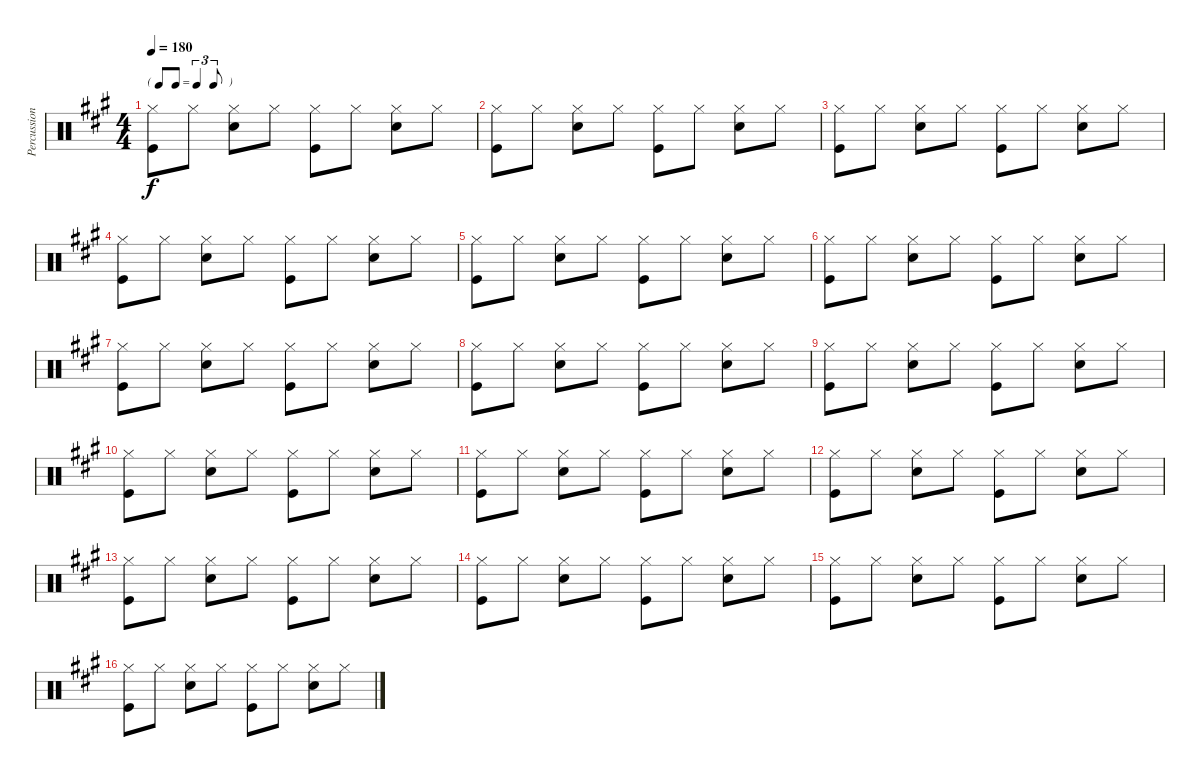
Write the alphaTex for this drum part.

\track ("Percussion" "Percussion") {instrument percussion}
\staff {score}
\articulation defaults
\ts (4 4)
\tf triplet8th
\tempo 180
\clef neutral
\ks a
("Hi-Hat (closed)" "Kick (hit)").8{dy f} "Hi-Hat (closed)".8 ("Hi-Hat (closed)" "Snare (hit) 2").8 "Hi-Hat (closed)".8 ("Hi-Hat (closed)" "Kick (hit)").8 "Hi-Hat (closed)".8 ("Hi-Hat (closed)" "Snare (hit) 2").8 "Hi-Hat (closed)".8 |
("Hi-Hat (closed)" "Kick (hit)").8 "Hi-Hat (closed)".8 ("Hi-Hat (closed)" "Snare (hit) 2").8 "Hi-Hat (closed)".8 ("Hi-Hat (closed)" "Kick (hit)").8 "Hi-Hat (closed)".8 ("Hi-Hat (closed)" "Snare (hit) 2").8 "Hi-Hat (closed)".8 |
("Hi-Hat (closed)" "Kick (hit)").8 "Hi-Hat (closed)".8 ("Hi-Hat (closed)" "Snare (hit) 2").8 "Hi-Hat (closed)".8 ("Hi-Hat (closed)" "Kick (hit)").8 "Hi-Hat (closed)".8 ("Hi-Hat (closed)" "Snare (hit) 2").8 "Hi-Hat (closed)".8 |
("Hi-Hat (closed)" "Kick (hit)").8 "Hi-Hat (closed)".8 ("Hi-Hat (closed)" "Snare (hit) 2").8 "Hi-Hat (closed)".8 ("Hi-Hat (closed)" "Kick (hit)").8 "Hi-Hat (closed)".8 ("Hi-Hat (closed)" "Snare (hit) 2").8 "Hi-Hat (closed)".8 |
("Hi-Hat (closed)" "Kick (hit)").8 "Hi-Hat (closed)".8 ("Hi-Hat (closed)" "Snare (hit) 2").8 "Hi-Hat (closed)".8 ("Hi-Hat (closed)" "Kick (hit)").8 "Hi-Hat (closed)".8 ("Hi-Hat (closed)" "Snare (hit) 2").8 "Hi-Hat (closed)".8 |
("Hi-Hat (closed)" "Kick (hit)").8 "Hi-Hat (closed)".8 ("Hi-Hat (closed)" "Snare (hit) 2").8 "Hi-Hat (closed)".8 ("Hi-Hat (closed)" "Kick (hit)").8 "Hi-Hat (closed)".8 ("Hi-Hat (closed)" "Snare (hit) 2").8 "Hi-Hat (closed)".8 |
("Hi-Hat (closed)" "Kick (hit)").8 "Hi-Hat (closed)".8 ("Hi-Hat (closed)" "Snare (hit) 2").8 "Hi-Hat (closed)".8 ("Hi-Hat (closed)" "Kick (hit)").8 "Hi-Hat (closed)".8 ("Hi-Hat (closed)" "Snare (hit) 2").8 "Hi-Hat (closed)".8 |
("Hi-Hat (closed)" "Kick (hit)").8 "Hi-Hat (closed)".8 ("Hi-Hat (closed)" "Snare (hit) 2").8 "Hi-Hat (closed)".8 ("Hi-Hat (closed)" "Kick (hit)").8 "Hi-Hat (closed)".8 ("Hi-Hat (closed)" "Snare (hit) 2").8 "Hi-Hat (closed)".8 |
("Hi-Hat (closed)" "Kick (hit)").8 "Hi-Hat (closed)".8 ("Hi-Hat (closed)" "Snare (hit) 2").8 "Hi-Hat (closed)".8 ("Hi-Hat (closed)" "Kick (hit)").8 "Hi-Hat (closed)".8 ("Hi-Hat (closed)" "Snare (hit) 2").8 "Hi-Hat (closed)".8 |
("Hi-Hat (closed)" "Kick (hit)").8 "Hi-Hat (closed)".8 ("Hi-Hat (closed)" "Snare (hit) 2").8 "Hi-Hat (closed)".8 ("Hi-Hat (closed)" "Kick (hit)").8 "Hi-Hat (closed)".8 ("Hi-Hat (closed)" "Snare (hit) 2").8 "Hi-Hat (closed)".8 |
("Hi-Hat (closed)" "Kick (hit)").8 "Hi-Hat (closed)".8 ("Hi-Hat (closed)" "Snare (hit) 2").8 "Hi-Hat (closed)".8 ("Hi-Hat (closed)" "Kick (hit)").8 "Hi-Hat (closed)".8 ("Hi-Hat (closed)" "Snare (hit) 2").8 "Hi-Hat (closed)".8 |
("Hi-Hat (closed)" "Kick (hit)").8 "Hi-Hat (closed)".8 ("Hi-Hat (closed)" "Snare (hit) 2").8 "Hi-Hat (closed)".8 ("Hi-Hat (closed)" "Kick (hit)").8 "Hi-Hat (closed)".8 ("Hi-Hat (closed)" "Snare (hit) 2").8 "Hi-Hat (closed)".8 |
("Hi-Hat (closed)" "Kick (hit)").8 "Hi-Hat (closed)".8 ("Hi-Hat (closed)" "Snare (hit) 2").8 "Hi-Hat (closed)".8 ("Hi-Hat (closed)" "Kick (hit)").8 "Hi-Hat (closed)".8 ("Hi-Hat (closed)" "Snare (hit) 2").8 "Hi-Hat (closed)".8 |
("Hi-Hat (closed)" "Kick (hit)").8 "Hi-Hat (closed)".8 ("Hi-Hat (closed)" "Snare (hit) 2").8 "Hi-Hat (closed)".8 ("Hi-Hat (closed)" "Kick (hit)").8 "Hi-Hat (closed)".8 ("Hi-Hat (closed)" "Snare (hit) 2").8 "Hi-Hat (closed)".8 |
("Hi-Hat (closed)" "Kick (hit)").8 "Hi-Hat (closed)".8 ("Hi-Hat (closed)" "Snare (hit) 2").8 "Hi-Hat (closed)".8 ("Hi-Hat (closed)" "Kick (hit)").8 "Hi-Hat (closed)".8 ("Hi-Hat (closed)" "Snare (hit) 2").8 "Hi-Hat (closed)".8 |
("Hi-Hat (closed)" "Kick (hit)").8 "Hi-Hat (closed)".8 ("Hi-Hat (closed)" "Snare (hit) 2").8 "Hi-Hat (closed)".8 ("Hi-Hat (closed)" "Kick (hit)").8 "Hi-Hat (closed)".8 ("Hi-Hat (closed)" "Snare (hit) 2").8 "Hi-Hat (closed)".8
